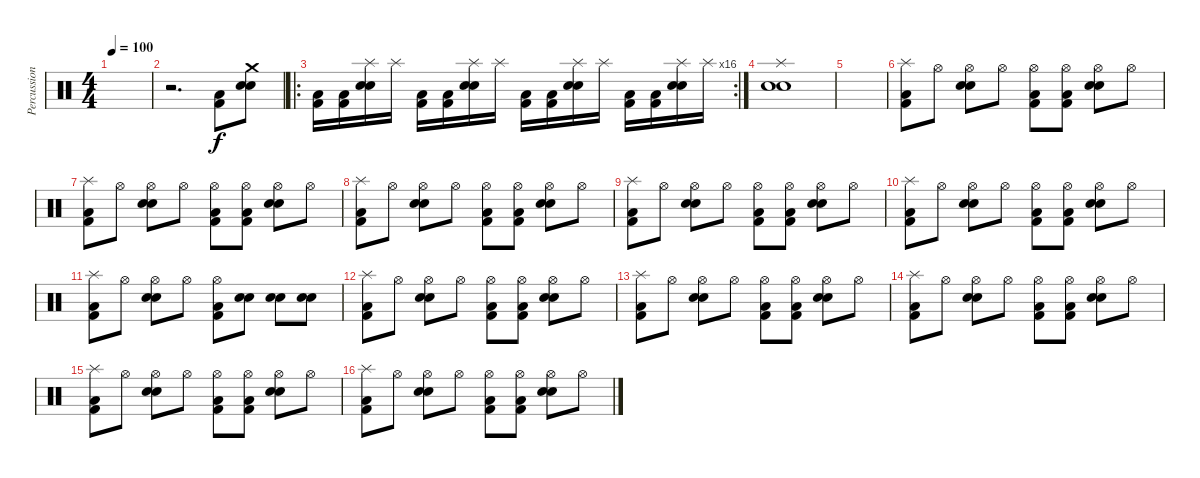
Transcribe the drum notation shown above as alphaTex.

\track ("Percussions" "Percussion") {instrument percussion}
\staff {score}
\articulation defaults
\ts (4 4)
\tempo 100
\clef neutral
\ks c
|
r.2{d} ("Low Floor Tom (hit)" "Kick (hit) 2").8 ("Crash medium (hit)" "Snare (hit) 2" "Electric Snare (hit)").8 |
\ro
\rc 16
("Low Floor Tom (hit)" "Kick (hit) 2").16 ("Low Floor Tom (hit)" "Kick (hit) 2").16 ("Splash (hit)" "Snare (hit) 2" "Electric Snare (hit)").16 "Splash (hit)".16 ("Low Floor Tom (hit)" "Kick (hit) 2").16 ("Low Floor Tom (hit)" "Kick (hit) 2").16 ("Splash (hit)" "Snare (hit) 2" "Electric Snare (hit)").16 "Splash (hit)".16 ("Low Floor Tom (hit)" "Kick (hit) 2").16 ("Low Floor Tom (hit)" "Kick (hit) 2").16 ("Splash (hit)" "Snare (hit) 2" "Electric Snare (hit)").16 "Splash (hit)".16 ("Low Floor Tom (hit)" "Kick (hit) 2").16 ("Low Floor Tom (hit)" "Kick (hit) 2").16 ("Splash (hit)" "Snare (hit) 2" "Electric Snare (hit)").16 "Splash (hit)".16 |
("Splash (hit)" "Snare (hit) 2" "Electric Snare (hit)").1 |
|
("Splash (hit)" "Kick (hit) 2" "Low Floor Tom (hit)").8 "Hi-Hat (open)".8 ("Hi-Hat (open)" "Snare (hit) 2" "Electric Snare (hit)").8 "Hi-Hat (open)".8 ("Hi-Hat (open)" "Kick (hit) 2" "Low Floor Tom (hit)").8 ("Hi-Hat (open)" "Kick (hit) 2" "Low Floor Tom (hit)").8 ("Hi-Hat (open)" "Snare (hit) 2" "Electric Snare (hit)").8 "Hi-Hat (open)".8 |
("Splash (hit)" "Kick (hit) 2" "Low Floor Tom (hit)").8 "Hi-Hat (open)".8 ("Hi-Hat (open)" "Snare (hit) 2" "Electric Snare (hit)").8 "Hi-Hat (open)".8 ("Hi-Hat (open)" "Kick (hit) 2" "Low Floor Tom (hit)").8 ("Hi-Hat (open)" "Kick (hit) 2" "Low Floor Tom (hit)").8 ("Hi-Hat (open)" "Snare (hit) 2" "Electric Snare (hit)").8 "Hi-Hat (open)".8 |
("Splash (hit)" "Kick (hit) 2" "Low Floor Tom (hit)").8 "Hi-Hat (open)".8 ("Hi-Hat (open)" "Snare (hit) 2" "Electric Snare (hit)").8 "Hi-Hat (open)".8 ("Hi-Hat (open)" "Kick (hit) 2" "Low Floor Tom (hit)").8 ("Hi-Hat (open)" "Kick (hit) 2" "Low Floor Tom (hit)").8 ("Hi-Hat (open)" "Snare (hit) 2" "Electric Snare (hit)").8 "Hi-Hat (open)".8 |
("Splash (hit)" "Kick (hit) 2" "Low Floor Tom (hit)").8 "Hi-Hat (open)".8 ("Hi-Hat (open)" "Snare (hit) 2" "Electric Snare (hit)").8 "Hi-Hat (open)".8 ("Hi-Hat (open)" "Kick (hit) 2" "Low Floor Tom (hit)").8 ("Hi-Hat (open)" "Kick (hit) 2" "Low Floor Tom (hit)").8 ("Hi-Hat (open)" "Snare (hit) 2" "Electric Snare (hit)").8 "Hi-Hat (open)".8 |
("Splash (hit)" "Kick (hit) 2" "Low Floor Tom (hit)").8 "Hi-Hat (open)".8 ("Hi-Hat (open)" "Snare (hit) 2" "Electric Snare (hit)").8 "Hi-Hat (open)".8 ("Hi-Hat (open)" "Kick (hit) 2" "Low Floor Tom (hit)").8 ("Hi-Hat (open)" "Kick (hit) 2" "Low Floor Tom (hit)").8 ("Hi-Hat (open)" "Snare (hit) 2" "Electric Snare (hit)").8 "Hi-Hat (open)".8 |
("Splash (hit)" "Kick (hit) 2" "Low Floor Tom (hit)").8 "Hi-Hat (open)".8 ("Hi-Hat (open)" "Snare (hit) 2" "Electric Snare (hit)").8 "Hi-Hat (open)".8 ("Hi-Hat (open)" "Kick (hit) 2" "Low Floor Tom (hit)").8 ("Snare (hit) 2" "Electric Snare (hit)").8 ("Snare (hit) 2" "Electric Snare (hit)").8 ("Snare (hit) 2" "Electric Snare (hit)").8 |
("Splash (hit)" "Kick (hit) 2" "Low Floor Tom (hit)").8 "Hi-Hat (open)".8 ("Hi-Hat (open)" "Snare (hit) 2" "Electric Snare (hit)").8 "Hi-Hat (open)".8 ("Hi-Hat (open)" "Kick (hit) 2" "Low Floor Tom (hit)").8 ("Hi-Hat (open)" "Kick (hit) 2" "Low Floor Tom (hit)").8 ("Hi-Hat (open)" "Snare (hit) 2" "Electric Snare (hit)").8 "Hi-Hat (open)".8 |
("Splash (hit)" "Kick (hit) 2" "Low Floor Tom (hit)").8 "Hi-Hat (open)".8 ("Hi-Hat (open)" "Snare (hit) 2" "Electric Snare (hit)").8 "Hi-Hat (open)".8 ("Hi-Hat (open)" "Kick (hit) 2" "Low Floor Tom (hit)").8 ("Hi-Hat (open)" "Kick (hit) 2" "Low Floor Tom (hit)").8 ("Hi-Hat (open)" "Snare (hit) 2" "Electric Snare (hit)").8 "Hi-Hat (open)".8 |
("Splash (hit)" "Kick (hit) 2" "Low Floor Tom (hit)").8 "Hi-Hat (open)".8 ("Hi-Hat (open)" "Snare (hit) 2" "Electric Snare (hit)").8 "Hi-Hat (open)".8 ("Hi-Hat (open)" "Kick (hit) 2" "Low Floor Tom (hit)").8 ("Hi-Hat (open)" "Kick (hit) 2" "Low Floor Tom (hit)").8 ("Hi-Hat (open)" "Snare (hit) 2" "Electric Snare (hit)").8 "Hi-Hat (open)".8 |
("Splash (hit)" "Kick (hit) 2" "Low Floor Tom (hit)").8 "Hi-Hat (open)".8 ("Hi-Hat (open)" "Snare (hit) 2" "Electric Snare (hit)").8 "Hi-Hat (open)".8 ("Hi-Hat (open)" "Kick (hit) 2" "Low Floor Tom (hit)").8 ("Hi-Hat (open)" "Kick (hit) 2" "Low Floor Tom (hit)").8 ("Hi-Hat (open)" "Snare (hit) 2" "Electric Snare (hit)").8 "Hi-Hat (open)".8 |
("Splash (hit)" "Kick (hit) 2" "Low Floor Tom (hit)").8 "Hi-Hat (open)".8 ("Hi-Hat (open)" "Snare (hit) 2" "Electric Snare (hit)").8 "Hi-Hat (open)".8 ("Hi-Hat (open)" "Kick (hit) 2" "Low Floor Tom (hit)").8 ("Hi-Hat (open)" "Kick (hit) 2" "Low Floor Tom (hit)").8 ("Hi-Hat (open)" "Snare (hit) 2" "Electric Snare (hit)").8 "Hi-Hat (open)".8
